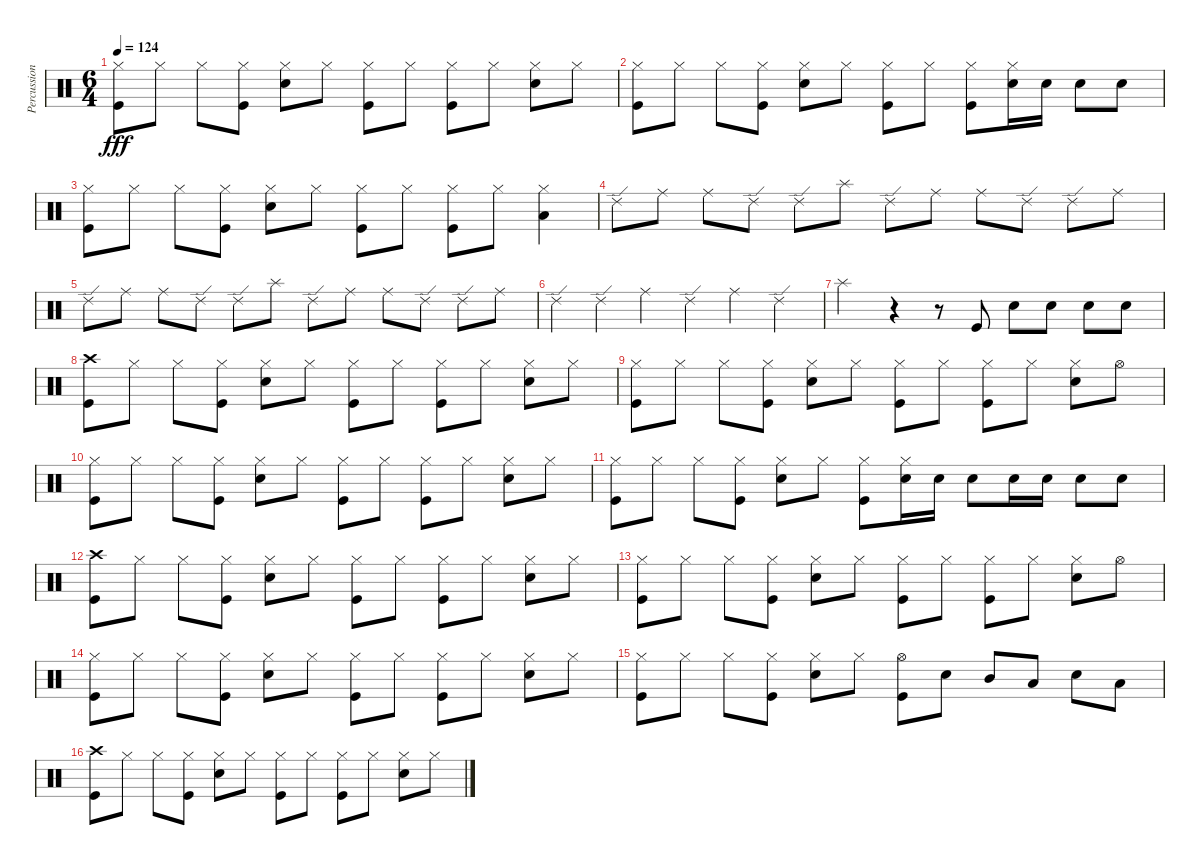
\track ("Percussion" "Percussion") {instrument percussion}
\staff {score}
\articulation defaults
\ts (6 4)
\tempo 124
\clef neutral
\ks c
("Hi-Hat (closed)" "Kick (hit)").8{dy fff} "Hi-Hat (closed)".8 "Hi-Hat (closed)".8 ("Hi-Hat (closed)" "Kick (hit)").8 ("Hi-Hat (closed)" "Snare (hit) 2").8 "Hi-Hat (closed)".8 ("Hi-Hat (closed)" "Kick (hit)").8 "Hi-Hat (closed)".8 ("Hi-Hat (closed)" "Kick (hit)").8 "Hi-Hat (closed)".8 ("Hi-Hat (closed)" "Snare (hit) 2").8 "Hi-Hat (closed)".8 |
("Hi-Hat (closed)" "Kick (hit)").8 "Hi-Hat (closed)".8 "Hi-Hat (closed)".8 ("Hi-Hat (closed)" "Kick (hit)").8 ("Hi-Hat (closed)" "Snare (hit) 2").8 "Hi-Hat (closed)".8 ("Hi-Hat (closed)" "Kick (hit)").8 "Hi-Hat (closed)".8 ("Hi-Hat (closed)" "Kick (hit)").8 ("Hi-Hat (closed)" "Snare (hit) 2").16 "Snare (hit) 2".16 "Snare (hit) 2".8 "Snare (hit) 2".8 |
("Hi-Hat (closed)" "Kick (hit)").8 "Hi-Hat (closed)".8 "Hi-Hat (closed)".8 ("Hi-Hat (closed)" "Kick (hit)").8 ("Hi-Hat (closed)" "Snare (hit) 2").8 "Hi-Hat (closed)".8 ("Hi-Hat (closed)" "Kick (hit)").8 "Hi-Hat (closed)".8 ("Hi-Hat (closed)" "Kick (hit)").8 "Hi-Hat (closed)".8 ("Hi-Hat (closed)" "Low Floor Tom (hit)").4 |
"Ride (edge) 2".8 "Ride (middle)".8 "Ride (middle)".8 "Ride (edge) 2".8 "Ride (edge) 2".8 "Splash (hit)".8 "Ride (edge) 2".8 "Ride (middle)".8 "Ride (middle)".8 "Ride (edge) 2".8 "Ride (edge) 2".8 "Ride (middle)".8 |
"Ride (edge) 2".8 "Ride (middle)".8 "Ride (middle)".8 "Ride (edge) 2".8 "Ride (edge) 2".8 "Splash (hit)".8 "Ride (edge) 2".8 "Ride (middle)".8 "Ride (middle)".8 "Ride (edge) 2".8 "Ride (edge) 2".8 "Ride (middle)".8 |
"Ride (edge) 2".4 "Ride (edge) 2".4 "Ride (middle)".4 "Ride (edge) 2".4 "Ride (middle)".4 "Ride (edge) 2".4 |
"Splash (hit)".2 r.4 r.8 "Kick (hit)".8 "Snare (hit) 2".8 "Snare (hit) 2".8 "Snare (hit) 2".8 "Snare (hit) 2".8 |
("Crash high (hit)" "Kick (hit)").8 "Hi-Hat (closed)".8 "Hi-Hat (closed)".8 ("Hi-Hat (closed)" "Kick (hit)").8 ("Hi-Hat (closed)" "Snare (hit) 2").8 "Hi-Hat (closed)".8 ("Hi-Hat (closed)" "Kick (hit)").8 "Hi-Hat (closed)".8 ("Hi-Hat (closed)" "Kick (hit)").8 "Hi-Hat (closed)".8 ("Hi-Hat (closed)" "Snare (hit) 2").8 "Hi-Hat (closed)".8 |
("Hi-Hat (closed)" "Kick (hit)").8 "Hi-Hat (closed)".8 "Hi-Hat (closed)".8 ("Hi-Hat (closed)" "Kick (hit)").8 ("Hi-Hat (closed)" "Snare (hit) 2").8 "Hi-Hat (closed)".8 ("Hi-Hat (closed)" "Kick (hit)").8 "Hi-Hat (closed)".8 ("Hi-Hat (closed)" "Kick (hit)").8 "Hi-Hat (closed)".8 ("Hi-Hat (closed)" "Snare (hit) 2").8 "Hi-Hat (open)".8 |
("Hi-Hat (closed)" "Kick (hit)").8 "Hi-Hat (closed)".8 "Hi-Hat (closed)".8 ("Hi-Hat (closed)" "Kick (hit)").8 ("Hi-Hat (closed)" "Snare (hit) 2").8 "Hi-Hat (closed)".8 ("Hi-Hat (closed)" "Kick (hit)").8 "Hi-Hat (closed)".8 ("Hi-Hat (closed)" "Kick (hit)").8 "Hi-Hat (closed)".8 ("Hi-Hat (closed)" "Snare (hit) 2").8 "Hi-Hat (closed)".8 |
("Hi-Hat (closed)" "Kick (hit)").8 "Hi-Hat (closed)".8 "Hi-Hat (closed)".8 ("Hi-Hat (closed)" "Kick (hit)").8 ("Hi-Hat (closed)" "Snare (hit) 2").8 "Hi-Hat (closed)".8 ("Hi-Hat (closed)" "Kick (hit)").8 ("Hi-Hat (closed)" "Snare (hit) 2").16 "Snare (hit) 2".16 "Snare (hit) 2".8 "Snare (hit) 2".16 "Snare (hit) 2".16 "Snare (hit) 2".8 "Snare (hit) 2".8 |
("Crash high (hit)" "Kick (hit)").8 "Hi-Hat (closed)".8 "Hi-Hat (closed)".8 ("Hi-Hat (closed)" "Kick (hit)").8 ("Hi-Hat (closed)" "Snare (hit) 2").8 "Hi-Hat (closed)".8 ("Hi-Hat (closed)" "Kick (hit)").8 "Hi-Hat (closed)".8 ("Hi-Hat (closed)" "Kick (hit)").8 "Hi-Hat (closed)".8 ("Hi-Hat (closed)" "Snare (hit) 2").8 "Hi-Hat (closed)".8 |
("Hi-Hat (closed)" "Kick (hit)").8 "Hi-Hat (closed)".8 "Hi-Hat (closed)".8 ("Hi-Hat (closed)" "Kick (hit)").8 ("Hi-Hat (closed)" "Snare (hit) 2").8 "Hi-Hat (closed)".8 ("Hi-Hat (closed)" "Kick (hit)").8 "Hi-Hat (closed)".8 ("Hi-Hat (closed)" "Kick (hit)").8 "Hi-Hat (closed)".8 ("Hi-Hat (closed)" "Snare (hit) 2").8 "Hi-Hat (open)".8 |
("Hi-Hat (closed)" "Kick (hit)").8 "Hi-Hat (closed)".8 "Hi-Hat (closed)".8 ("Hi-Hat (closed)" "Kick (hit)").8 ("Hi-Hat (closed)" "Snare (hit) 2").8 "Hi-Hat (closed)".8 ("Hi-Hat (closed)" "Kick (hit)").8 "Hi-Hat (closed)".8 ("Hi-Hat (closed)" "Kick (hit)").8 "Hi-Hat (closed)".8 ("Hi-Hat (closed)" "Snare (hit) 2").8 "Hi-Hat (closed)".8 |
("Hi-Hat (closed)" "Kick (hit)").8 "Hi-Hat (closed)".8 "Hi-Hat (closed)".8 ("Hi-Hat (closed)" "Kick (hit)").8 ("Hi-Hat (closed)" "Snare (hit) 2").8 "Hi-Hat (closed)".8 ("Hi-Hat (open)" "Kick (hit)").8 "Snare (hit) 2".8 "Mid Tom (hit)".8 "Low Tom (hit)".8 "Snare (hit) 2".8 "Low Tom (hit)".8 |
("Crash high (hit)" "Kick (hit)").8 "Hi-Hat (closed)".8 "Hi-Hat (closed)".8 ("Hi-Hat (closed)" "Kick (hit)").8 ("Hi-Hat (closed)" "Snare (hit) 2").8 "Hi-Hat (closed)".8 ("Hi-Hat (closed)" "Kick (hit)").8 "Hi-Hat (closed)".8 ("Hi-Hat (closed)" "Kick (hit)").8 "Hi-Hat (closed)".8 ("Hi-Hat (closed)" "Snare (hit) 2").8 "Hi-Hat (closed)".8
